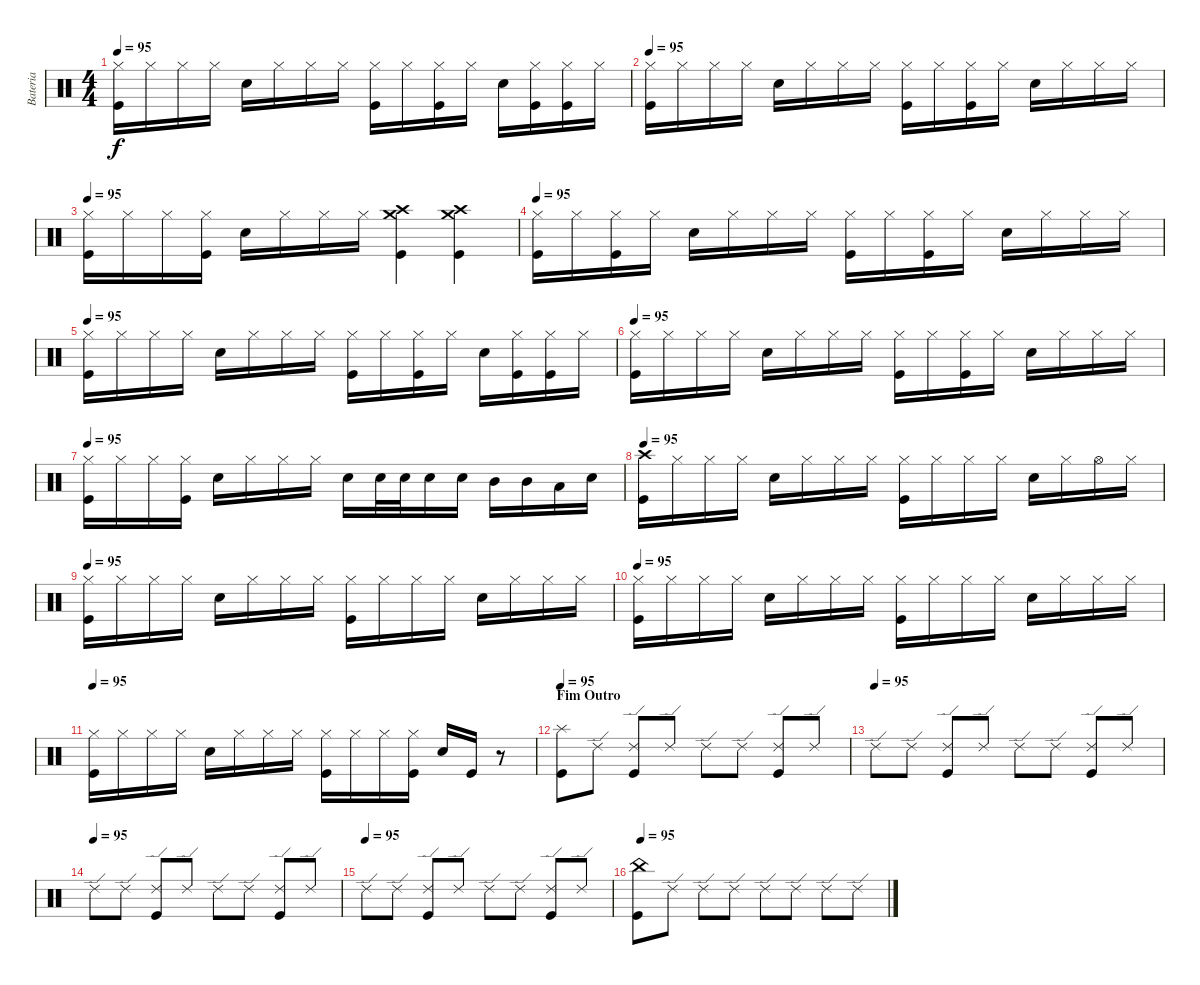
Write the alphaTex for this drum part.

\track ("Bateria" "Bateria") {instrument percussion}
\staff {score}
\articulation defaults
\ts (4 4)
\tempo 95
\clef neutral
\ks c
("Hi-Hat (closed)" "Kick (hit)").16{dy f} "Hi-Hat (closed)".16 "Hi-Hat (closed)".16 "Hi-Hat (closed)".16 "Snare (hit) 2".16 "Hi-Hat (closed)".16 "Hi-Hat (closed)".16 "Hi-Hat (closed)".16 ("Hi-Hat (closed)" "Kick (hit)").16 "Hi-Hat (closed)".16 ("Hi-Hat (closed)" "Kick (hit)").16 "Hi-Hat (closed)".16 "Snare (hit) 2".16 ("Hi-Hat (closed)" "Kick (hit)").16 ("Hi-Hat (closed)" "Kick (hit)").16 "Hi-Hat (closed)".16 |
\tempo 95
("Hi-Hat (closed)" "Kick (hit)").16 "Hi-Hat (closed)".16 "Hi-Hat (closed)".16 "Hi-Hat (closed)".16 "Snare (hit) 2".16 "Hi-Hat (closed)".16 "Hi-Hat (closed)".16 "Hi-Hat (closed)".16 ("Hi-Hat (closed)" "Kick (hit)").16 "Hi-Hat (closed)".16 ("Hi-Hat (closed)" "Kick (hit)").16 "Hi-Hat (closed)".16 "Snare (hit) 2".16 "Hi-Hat (closed)".16 "Hi-Hat (closed)".16 "Hi-Hat (closed)".16 |
\tempo 95
("Hi-Hat (closed)" "Kick (hit)").16 "Hi-Hat (closed)".16 "Hi-Hat (closed)".16 ("Hi-Hat (closed)" "Kick (hit)").16 "Snare (hit) 2".16 "Hi-Hat (closed)".16 "Hi-Hat (closed)".16 "Hi-Hat (closed)".16 ("Crash high (hit)" "Crash medium (hit)" "Kick (hit)").4 ("Crash high (hit)" "Crash medium (hit)" "Kick (hit)").4 |
\tempo 95
("Hi-Hat (closed)" "Kick (hit)").16 "Hi-Hat (closed)".16 ("Hi-Hat (closed)" "Kick (hit)").16 "Hi-Hat (closed)".16 "Snare (hit) 2".16 "Hi-Hat (closed)".16 "Hi-Hat (closed)".16 "Hi-Hat (closed)".16 ("Hi-Hat (closed)" "Kick (hit)").16 "Hi-Hat (closed)".16 ("Hi-Hat (closed)" "Kick (hit)").16 "Hi-Hat (closed)".16 "Snare (hit) 2".16 "Hi-Hat (closed)".16 "Hi-Hat (closed)".16 "Hi-Hat (closed)".16 |
\tempo 95
("Hi-Hat (closed)" "Kick (hit)").16 "Hi-Hat (closed)".16 "Hi-Hat (closed)".16 "Hi-Hat (closed)".16 "Snare (hit) 2".16 "Hi-Hat (closed)".16 "Hi-Hat (closed)".16 "Hi-Hat (closed)".16 ("Hi-Hat (closed)" "Kick (hit)").16 "Hi-Hat (closed)".16 ("Hi-Hat (closed)" "Kick (hit)").16 "Hi-Hat (closed)".16 "Snare (hit) 2".16 ("Hi-Hat (closed)" "Kick (hit)").16 ("Hi-Hat (closed)" "Kick (hit)").16 "Hi-Hat (closed)".16 |
\tempo 95
("Hi-Hat (closed)" "Kick (hit)").16 "Hi-Hat (closed)".16 "Hi-Hat (closed)".16 "Hi-Hat (closed)".16 "Snare (hit) 2".16 "Hi-Hat (closed)".16 "Hi-Hat (closed)".16 "Hi-Hat (closed)".16 ("Hi-Hat (closed)" "Kick (hit)").16 "Hi-Hat (closed)".16 ("Hi-Hat (closed)" "Kick (hit)").16 "Hi-Hat (closed)".16 "Snare (hit) 2".16 "Hi-Hat (closed)".16 "Hi-Hat (closed)".16 "Hi-Hat (closed)".16 |
\tempo 95
("Hi-Hat (closed)" "Kick (hit)").16 "Hi-Hat (closed)".16 "Hi-Hat (closed)".16 ("Hi-Hat (closed)" "Kick (hit)").16 "Snare (hit) 2".16 "Hi-Hat (closed)".16 "Hi-Hat (closed)".16 "Hi-Hat (closed)".16 "Snare (hit) 2".16 "Snare (hit) 2".32 "Snare (hit) 2".32 "Snare (hit) 2".16 "Snare (hit) 2".16 "Mid Tom (hit)".16 "Mid Tom (hit)".16 "Low Tom (hit)".16 "Snare (hit) 2".16 |
\tempo 95
("Crash high (hit)" "Kick (hit)").16 "Hi-Hat (closed)".16 "Hi-Hat (closed)".16 "Hi-Hat (closed)".16 "Snare (hit) 2".16 "Hi-Hat (closed)".16 "Hi-Hat (closed)".16 "Hi-Hat (closed)".16 ("Hi-Hat (closed)" "Kick (hit)").16 "Hi-Hat (closed)".16 "Hi-Hat (closed)".16 "Hi-Hat (closed)".16 "Snare (hit) 2".16 "Hi-Hat (closed)".16 "Hi-Hat (open)".16 "Hi-Hat (closed)".16 |
\tempo 95
("Hi-Hat (closed)" "Kick (hit)").16 "Hi-Hat (closed)".16 "Hi-Hat (closed)".16 "Hi-Hat (closed)".16 "Snare (hit) 2".16 "Hi-Hat (closed)".16 "Hi-Hat (closed)".16 "Hi-Hat (closed)".16 ("Hi-Hat (closed)" "Kick (hit)").16 "Hi-Hat (closed)".16 "Hi-Hat (closed)".16 "Hi-Hat (closed)".16 "Snare (hit) 2".16 "Hi-Hat (closed)".16 "Hi-Hat (closed)".16 "Hi-Hat (closed)".16 |
\tempo 95
("Hi-Hat (closed)" "Kick (hit)").16 "Hi-Hat (closed)".16 "Hi-Hat (closed)".16 "Hi-Hat (closed)".16 "Snare (hit) 2".16 "Hi-Hat (closed)".16 "Hi-Hat (closed)".16 "Hi-Hat (closed)".16 ("Hi-Hat (closed)" "Kick (hit)").16 "Hi-Hat (closed)".16 "Hi-Hat (closed)".16 "Hi-Hat (closed)".16 "Snare (hit) 2".16 "Hi-Hat (closed)".16 "Hi-Hat (closed)".16 "Hi-Hat (closed)".16 |
\tempo 95
("Hi-Hat (closed)" "Kick (hit)").16 "Hi-Hat (closed)".16 "Hi-Hat (closed)".16 "Hi-Hat (closed)".16 "Snare (hit) 2".16 "Hi-Hat (closed)".16 "Hi-Hat (closed)".16 "Hi-Hat (closed)".16 ("Hi-Hat (closed)" "Kick (hit)").16 "Hi-Hat (closed)".16 "Hi-Hat (closed)".16 ("Hi-Hat (closed)" "Kick (hit)").16 "Snare (hit) 2".16 "Kick (hit)".16 r.8 |
\section ("" "Fim Outro")
\tempo 95
("Splash (hit)" "Kick (hit)").8 "Ride (edge) 2".8 ("Ride (edge) 2" "Kick (hit)").8 "Ride (edge) 2".8 "Ride (edge) 2".8 "Ride (edge) 2".8 ("Ride (edge) 2" "Kick (hit)").8 "Ride (edge) 2".8 |
\tempo (95)
"Ride (edge) 2".8 "Ride (edge) 2".8 ("Ride (edge) 2" "Kick (hit)").8 "Ride (edge) 2".8 "Ride (edge) 2".8 "Ride (edge) 2".8 ("Ride (edge) 2" "Kick (hit)").8 "Ride (edge) 2".8 |
\tempo (95)
"Ride (edge) 2".8 "Ride (edge) 2".8 ("Ride (edge) 2" "Kick (hit)").8 "Ride (edge) 2".8 "Ride (edge) 2".8 "Ride (edge) 2".8 ("Ride (edge) 2" "Kick (hit)").8 "Ride (edge) 2".8 |
\tempo (95)
"Ride (edge) 2".8 "Ride (edge) 2".8 ("Ride (edge) 2" "Kick (hit)").8 "Ride (edge) 2".8 "Ride (edge) 2".8 "Ride (edge) 2".8 ("Ride (edge) 2" "Kick (hit)").8 "Ride (edge) 2".8 |
\tempo 95
("China (hit)" "Kick (hit)").8 "Ride (edge) 2".8 "Ride (edge) 2".8 "Ride (edge) 2".8 "Ride (edge) 2".8 "Ride (edge) 2".8 "Ride (edge) 2".8 "Ride (edge) 2".8
